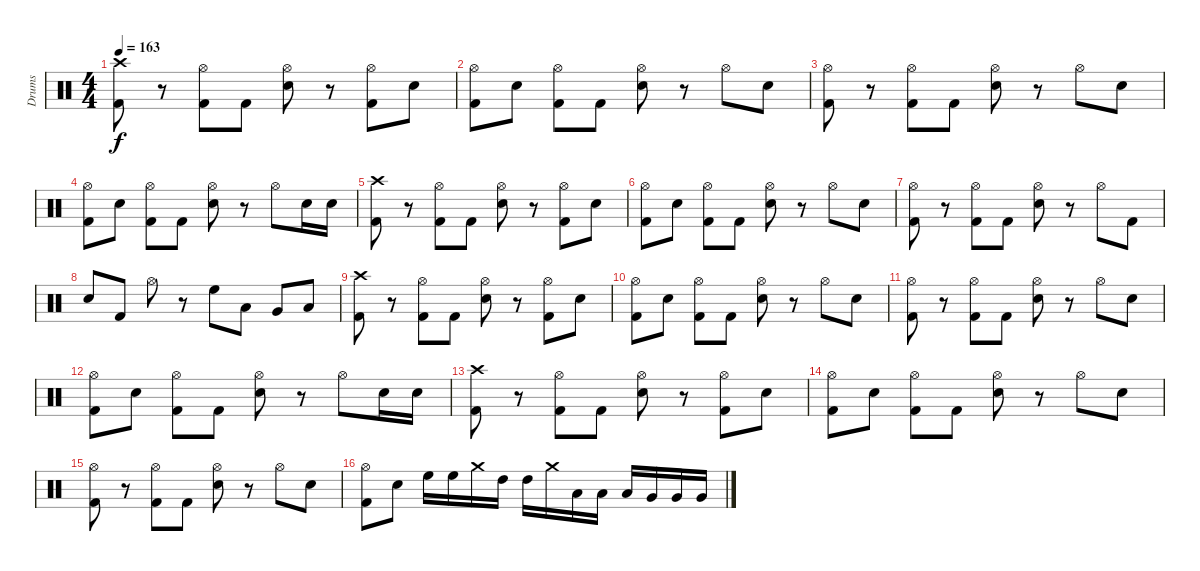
\track ("Drums" "Drums") {instrument percussion}
\staff {score}
\articulation defaults
\ts (4 4)
\tempo 163
\clef neutral
\ks c
("Crash high (hit)" "Kick (hit) 2").8{dy f} r.8 ("Hi-Hat (open)" "Kick (hit) 2").8 "Kick (hit) 2".8 ("Hi-Hat (open)" "Snare (hit) 2").8 r.8 ("Hi-Hat (open)" "Kick (hit) 2").8 "Snare (hit) 2".8 |
("Hi-Hat (open)" "Kick (hit) 2").8 "Snare (hit) 2".8 ("Hi-Hat (open)" "Kick (hit) 2").8 "Kick (hit) 2".8 ("Hi-Hat (open)" "Snare (hit) 2").8 r.8 "Hi-Hat (open)".8 "Snare (hit) 2".8 |
("Hi-Hat (open)" "Kick (hit) 2").8 r.8 ("Hi-Hat (open)" "Kick (hit) 2").8 "Kick (hit) 2".8 ("Hi-Hat (open)" "Snare (hit) 2").8 r.8 "Hi-Hat (open)".8 "Snare (hit) 2".8 |
("Hi-Hat (open)" "Kick (hit) 2").8 "Snare (hit) 2".8 ("Hi-Hat (open)" "Kick (hit) 2").8 "Kick (hit) 2".8 ("Hi-Hat (open)" "Snare (hit) 2").8 r.8 "Hi-Hat (open)".8 "Snare (hit) 2".16 "Snare (hit) 2".16 |
("Crash high (hit)" "Kick (hit) 2").8 r.8 ("Hi-Hat (open)" "Kick (hit) 2").8 "Kick (hit) 2".8 ("Hi-Hat (open)" "Snare (hit) 2").8 r.8 ("Hi-Hat (open)" "Kick (hit) 2").8 "Snare (hit) 2".8 |
("Hi-Hat (open)" "Kick (hit) 2").8 "Snare (hit) 2".8 ("Hi-Hat (open)" "Kick (hit) 2").8 "Kick (hit) 2".8 ("Hi-Hat (open)" "Snare (hit) 2").8 r.8 "Hi-Hat (open)".8 "Snare (hit) 2".8 |
("Hi-Hat (open)" "Kick (hit) 2").8 r.8 ("Hi-Hat (open)" "Kick (hit) 2").8 "Kick (hit) 2".8 ("Hi-Hat (open)" "Snare (hit) 2").8 r.8 "Hi-Hat (open)".8 "Kick (hit) 2".8 |
"Snare (hit) 2".8 "Kick (hit) 2".8 "Hi-Hat (open)".8 r.8 "High Floor Tom (hit)".8 "Low Tom (hit)".8 "Very Low Tom (hit)".8 "Low Floor Tom (hit)".8 |
("Crash high (hit)" "Kick (hit) 2").8 r.8 ("Hi-Hat (open)" "Kick (hit) 2").8 "Kick (hit) 2".8 ("Hi-Hat (open)" "Snare (hit) 2").8 r.8 ("Hi-Hat (open)" "Kick (hit) 2").8 "Snare (hit) 2".8 |
("Hi-Hat (open)" "Kick (hit) 2").8 "Snare (hit) 2".8 ("Hi-Hat (open)" "Kick (hit) 2").8 "Kick (hit) 2".8 ("Hi-Hat (open)" "Snare (hit) 2").8 r.8 "Hi-Hat (open)".8 "Snare (hit) 2".8 |
("Hi-Hat (open)" "Kick (hit) 2").8 r.8 ("Hi-Hat (open)" "Kick (hit) 2").8 "Kick (hit) 2".8 ("Hi-Hat (open)" "Snare (hit) 2").8 r.8 "Hi-Hat (open)".8 "Snare (hit) 2".8 |
("Hi-Hat (open)" "Kick (hit) 2").8 "Snare (hit) 2".8 ("Hi-Hat (open)" "Kick (hit) 2").8 "Kick (hit) 2".8 ("Hi-Hat (open)" "Snare (hit) 2").8 r.8 "Hi-Hat (open)".8 "Snare (hit) 2".16 "Snare (hit) 2".16 |
("Crash high (hit)" "Kick (hit) 2").8 r.8 ("Hi-Hat (open)" "Kick (hit) 2").8 "Kick (hit) 2".8 ("Hi-Hat (open)" "Snare (hit) 2").8 r.8 ("Hi-Hat (open)" "Kick (hit) 2").8 "Snare (hit) 2".8 |
("Hi-Hat (open)" "Kick (hit) 2").8 "Snare (hit) 2".8 ("Hi-Hat (open)" "Kick (hit) 2").8 "Kick (hit) 2".8 ("Hi-Hat (open)" "Snare (hit) 2").8 r.8 "Hi-Hat (open)".8 "Snare (hit) 2".8 |
("Hi-Hat (open)" "Kick (hit) 2").8 r.8 ("Hi-Hat (open)" "Kick (hit) 2").8 "Kick (hit) 2".8 ("Hi-Hat (open)" "Snare (hit) 2").8 r.8 "Hi-Hat (open)".8 "Snare (hit) 2".8 |
("Hi-Hat (open)" "Kick (hit) 2").8 "Snare (hit) 2".8 "High Floor Tom (hit)".16 "High Floor Tom (hit)".16 "Crash medium (hit)".16 "High Tom (hit)".16 "High Tom (hit)".16 "Crash medium (hit)".16 "Low Tom (hit)".16 "Low Tom (hit)".16 "Low Tom (hit)".16 "Very Low Tom (hit)".16 "Very Low Tom (hit)".16 "Very Low Tom (hit)".16
